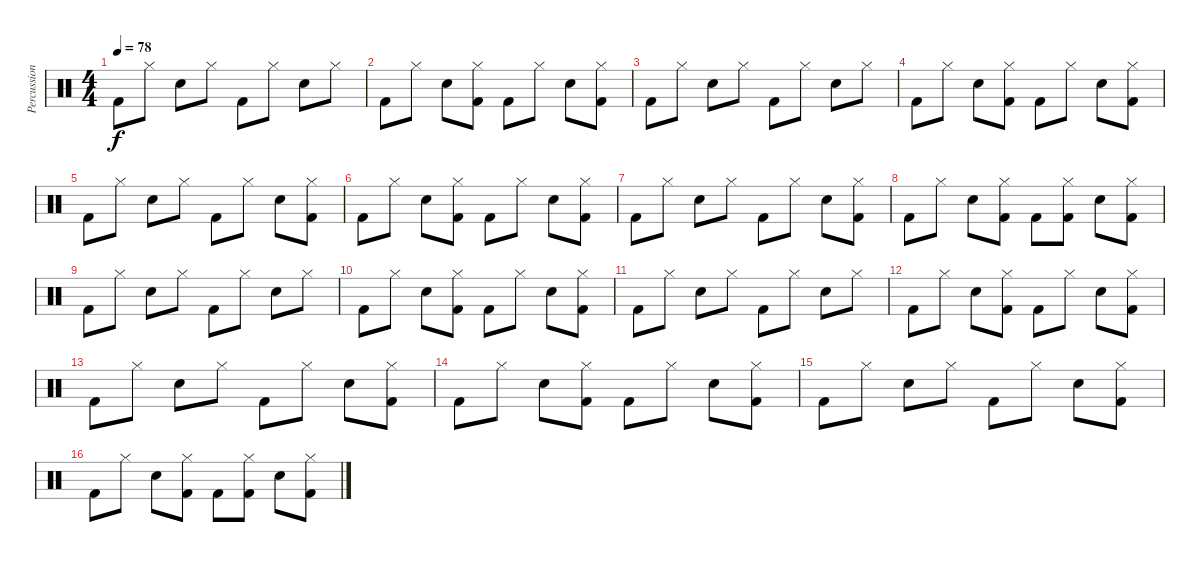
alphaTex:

\track ("Percussion" "Percussion") {instrument percussion}
\staff {score}
\articulation defaults
\ts (4 4)
\tempo 78
\clef neutral
\ks c "Kick (hit) 2".8{dy f} "Hi-Hat (closed)".8 "Electric Snare (hit)".8 "Hi-Hat (closed)".8 "Kick (hit) 2".8 "Hi-Hat (closed)".8 "Electric Snare (hit)".8 "Hi-Hat (closed)".8
|
"Kick (hit) 2".8 "Hi-Hat (closed)".8 "Electric Snare (hit)".8 ("Hi-Hat (closed)" "Kick (hit) 2").8 "Kick (hit) 2".8 "Hi-Hat (closed)".8 "Electric Snare (hit)".8 ("Hi-Hat (closed)" "Kick (hit) 2").8 |
"Kick (hit) 2".8 "Hi-Hat (closed)".8 "Electric Snare (hit)".8 "Hi-Hat (closed)".8 "Kick (hit) 2".8 "Hi-Hat (closed)".8 "Electric Snare (hit)".8 "Hi-Hat (closed)".8 |
"Kick (hit) 2".8 "Hi-Hat (closed)".8 "Electric Snare (hit)".8 ("Hi-Hat (closed)" "Kick (hit) 2").8 "Kick (hit) 2".8 "Hi-Hat (closed)".8 "Electric Snare (hit)".8 ("Hi-Hat (closed)" "Kick (hit) 2").8 |
"Kick (hit) 2".8 "Hi-Hat (closed)".8 "Electric Snare (hit)".8 "Hi-Hat (closed)".8 "Kick (hit) 2".8 "Hi-Hat (closed)".8 "Electric Snare (hit)".8 ("Hi-Hat (closed)" "Kick (hit) 2").8 |
"Kick (hit) 2".8 "Hi-Hat (closed)".8 "Electric Snare (hit)".8 ("Hi-Hat (closed)" "Kick (hit) 2").8 "Kick (hit) 2".8 "Hi-Hat (closed)".8 "Electric Snare (hit)".8 ("Hi-Hat (closed)" "Kick (hit) 2").8 |
"Kick (hit) 2".8 "Hi-Hat (closed)".8 "Electric Snare (hit)".8 "Hi-Hat (closed)".8 "Kick (hit) 2".8 "Hi-Hat (closed)".8 "Electric Snare (hit)".8 ("Hi-Hat (closed)" "Kick (hit) 2").8 |
"Kick (hit) 2".8 "Hi-Hat (closed)".8 "Electric Snare (hit)".8 ("Hi-Hat (closed)" "Kick (hit) 2").8 "Kick (hit) 2".8 ("Hi-Hat (closed)" "Kick (hit) 2").8 "Electric Snare (hit)".8 ("Hi-Hat (closed)" "Kick (hit) 2").8 |
"Kick (hit) 2".8 "Hi-Hat (closed)".8 "Electric Snare (hit)".8 "Hi-Hat (closed)".8 "Kick (hit) 2".8 "Hi-Hat (closed)".8 "Electric Snare (hit)".8 "Hi-Hat (closed)".8 |
"Kick (hit) 2".8 "Hi-Hat (closed)".8 "Electric Snare (hit)".8 ("Hi-Hat (closed)" "Kick (hit) 2").8 "Kick (hit) 2".8 "Hi-Hat (closed)".8 "Electric Snare (hit)".8 ("Hi-Hat (closed)" "Kick (hit) 2").8 |
"Kick (hit) 2".8 "Hi-Hat (closed)".8 "Electric Snare (hit)".8 "Hi-Hat (closed)".8 "Kick (hit) 2".8 "Hi-Hat (closed)".8 "Electric Snare (hit)".8 "Hi-Hat (closed)".8 |
"Kick (hit) 2".8 "Hi-Hat (closed)".8 "Electric Snare (hit)".8 ("Hi-Hat (closed)" "Kick (hit) 2").8 "Kick (hit) 2".8 "Hi-Hat (closed)".8 "Electric Snare (hit)".8 ("Hi-Hat (closed)" "Kick (hit) 2").8 |
"Kick (hit) 2".8 "Hi-Hat (closed)".8 "Electric Snare (hit)".8 "Hi-Hat (closed)".8 "Kick (hit) 2".8 "Hi-Hat (closed)".8 "Electric Snare (hit)".8 ("Hi-Hat (closed)" "Kick (hit) 2").8 |
"Kick (hit) 2".8 "Hi-Hat (closed)".8 "Electric Snare (hit)".8 ("Hi-Hat (closed)" "Kick (hit) 2").8 "Kick (hit) 2".8 "Hi-Hat (closed)".8 "Electric Snare (hit)".8 ("Hi-Hat (closed)" "Kick (hit) 2").8 |
"Kick (hit) 2".8 "Hi-Hat (closed)".8 "Electric Snare (hit)".8 "Hi-Hat (closed)".8 "Kick (hit) 2".8 "Hi-Hat (closed)".8 "Electric Snare (hit)".8 ("Hi-Hat (closed)" "Kick (hit) 2").8 |
"Kick (hit) 2".8 "Hi-Hat (closed)".8 "Electric Snare (hit)".8 ("Hi-Hat (closed)" "Kick (hit) 2").8 "Kick (hit) 2".8 ("Hi-Hat (closed)" "Kick (hit) 2").8 "Electric Snare (hit)".8 ("Hi-Hat (closed)" "Kick (hit) 2").8
